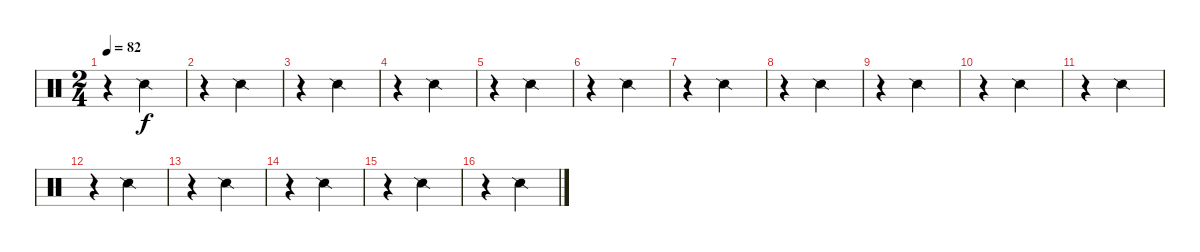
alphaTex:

\track "" {instrument percussion}
\staff {score}
\articulation defaults
\ts (2 4)
\tempo 82
\clef neutral
\ks c
r.4{dy f} "Snare (side stick) 2".4 |
r.4 "Snare (side stick) 2".4 |
r.4 "Snare (side stick) 2".4 |
r.4 "Snare (side stick) 2".4 |
r.4 "Snare (side stick) 2".4 |
r.4 "Snare (side stick) 2".4 |
r.4 "Snare (side stick) 2".4 |
r.4 "Snare (side stick) 2".4 |
r.4 "Snare (side stick) 2".4 |
r.4 "Snare (side stick) 2".4 |
r.4 "Snare (side stick) 2".4 |
r.4 "Snare (side stick) 2".4 |
r.4 "Snare (side stick) 2".4 |
r.4 "Snare (side stick) 2".4 |
r.4 "Snare (side stick) 2".4 |
r.4 "Snare (side stick) 2".4
